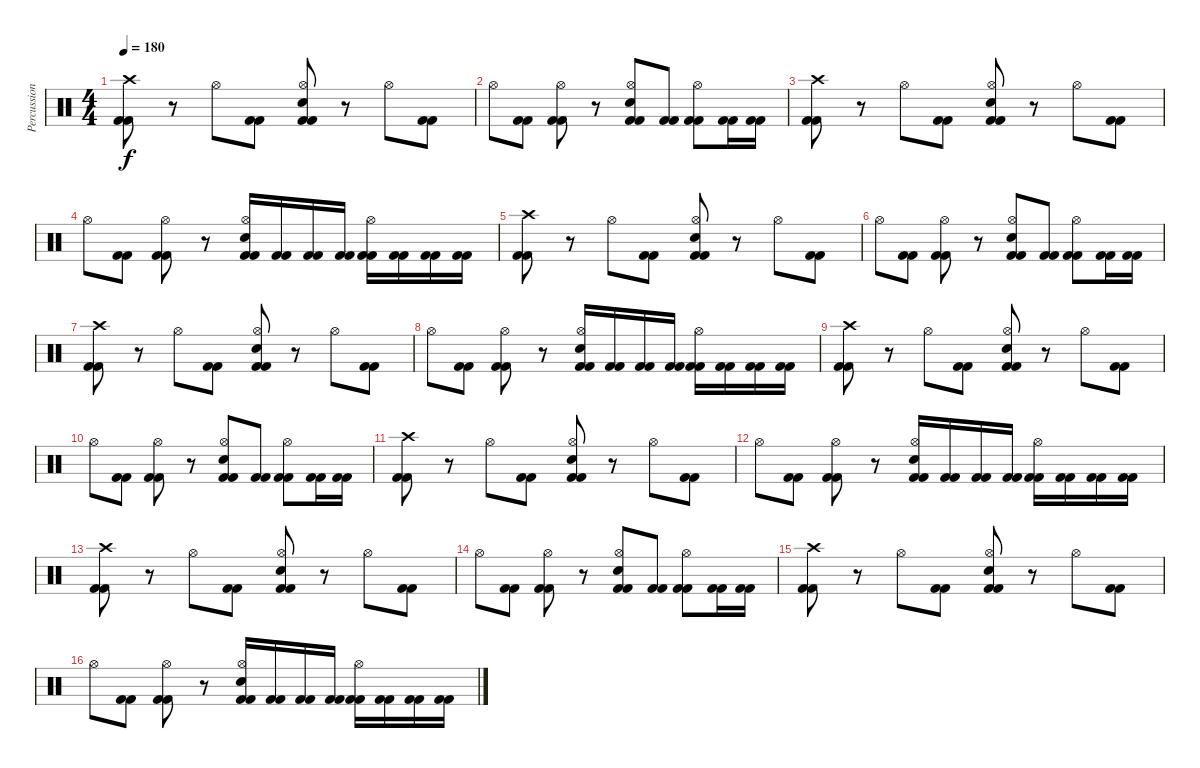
\track ("Percussion" "Percussion") {instrument percussion}
\staff {score}
\articulation defaults
\ts (4 4)
\tempo 180
\clef neutral
\ks c
("Crash high (hit)" "Kick (hit) 2" "Kick (hit) 2").8{dy f} r.8 "Hi-Hat (open)".8 ("Kick (hit) 2" "Kick (hit) 2").8 ("Hi-Hat (open)" "Electric Snare (hit)" "Kick (hit) 2" "Kick (hit) 2").8 r.8 "Hi-Hat (open)".8 ("Kick (hit) 2" "Kick (hit) 2").8 |
"Hi-Hat (open)".8 ("Kick (hit) 2" "Kick (hit) 2").8 ("Hi-Hat (open)" "Kick (hit) 2" "Kick (hit) 2").8 r.8 ("Hi-Hat (open)" "Electric Snare (hit)" "Kick (hit) 2" "Kick (hit) 2").8 ("Kick (hit) 2" "Kick (hit) 2").8 ("Hi-Hat (open)" "Kick (hit) 2" "Kick (hit) 2").8 ("Kick (hit) 2" "Kick (hit) 2").16 ("Kick (hit) 2" "Kick (hit) 2").16 |
("Crash high (hit)" "Kick (hit) 2" "Kick (hit) 2").8 r.8 "Hi-Hat (open)".8 ("Kick (hit) 2" "Kick (hit) 2").8 ("Hi-Hat (open)" "Electric Snare (hit)" "Kick (hit) 2" "Kick (hit) 2").8 r.8 "Hi-Hat (open)".8 ("Kick (hit) 2" "Kick (hit) 2").8 |
"Hi-Hat (open)".8 ("Kick (hit) 2" "Kick (hit) 2").8 ("Hi-Hat (open)" "Kick (hit) 2" "Kick (hit) 2").8 r.8 ("Hi-Hat (open)" "Electric Snare (hit)" "Kick (hit) 2" "Kick (hit) 2").16 ("Kick (hit) 2" "Kick (hit) 2").16 ("Kick (hit) 2" "Kick (hit) 2").16 ("Kick (hit) 2" "Kick (hit) 2").16 ("Hi-Hat (open)" "Kick (hit) 2" "Kick (hit) 2").16 ("Kick (hit) 2" "Kick (hit) 2").16 ("Kick (hit) 2" "Kick (hit) 2").16 ("Kick (hit) 2" "Kick (hit) 2").16 |
("Crash high (hit)" "Kick (hit) 2" "Kick (hit) 2").8 r.8 "Hi-Hat (open)".8 ("Kick (hit) 2" "Kick (hit) 2").8 ("Hi-Hat (open)" "Electric Snare (hit)" "Kick (hit) 2" "Kick (hit) 2").8 r.8 "Hi-Hat (open)".8 ("Kick (hit) 2" "Kick (hit) 2").8 |
"Hi-Hat (open)".8 ("Kick (hit) 2" "Kick (hit) 2").8 ("Hi-Hat (open)" "Kick (hit) 2" "Kick (hit) 2").8 r.8 ("Hi-Hat (open)" "Electric Snare (hit)" "Kick (hit) 2" "Kick (hit) 2").8 ("Kick (hit) 2" "Kick (hit) 2").8 ("Hi-Hat (open)" "Kick (hit) 2" "Kick (hit) 2").8 ("Kick (hit) 2" "Kick (hit) 2").16 ("Kick (hit) 2" "Kick (hit) 2").16 |
("Crash high (hit)" "Kick (hit) 2" "Kick (hit) 2").8 r.8 "Hi-Hat (open)".8 ("Kick (hit) 2" "Kick (hit) 2").8 ("Hi-Hat (open)" "Electric Snare (hit)" "Kick (hit) 2" "Kick (hit) 2").8 r.8 "Hi-Hat (open)".8 ("Kick (hit) 2" "Kick (hit) 2").8 |
"Hi-Hat (open)".8 ("Kick (hit) 2" "Kick (hit) 2").8 ("Hi-Hat (open)" "Kick (hit) 2" "Kick (hit) 2").8 r.8 ("Hi-Hat (open)" "Electric Snare (hit)" "Kick (hit) 2" "Kick (hit) 2").16 ("Kick (hit) 2" "Kick (hit) 2").16 ("Kick (hit) 2" "Kick (hit) 2").16 ("Kick (hit) 2" "Kick (hit) 2").16 ("Hi-Hat (open)" "Kick (hit) 2" "Kick (hit) 2").16 ("Kick (hit) 2" "Kick (hit) 2").16 ("Kick (hit) 2" "Kick (hit) 2").16 ("Kick (hit) 2" "Kick (hit) 2").16 |
("Crash high (hit)" "Kick (hit) 2" "Kick (hit) 2").8 r.8 "Hi-Hat (open)".8 ("Kick (hit) 2" "Kick (hit) 2").8 ("Hi-Hat (open)" "Electric Snare (hit)" "Kick (hit) 2" "Kick (hit) 2").8 r.8 "Hi-Hat (open)".8 ("Kick (hit) 2" "Kick (hit) 2").8 |
"Hi-Hat (open)".8 ("Kick (hit) 2" "Kick (hit) 2").8 ("Hi-Hat (open)" "Kick (hit) 2" "Kick (hit) 2").8 r.8 ("Hi-Hat (open)" "Electric Snare (hit)" "Kick (hit) 2" "Kick (hit) 2").8 ("Kick (hit) 2" "Kick (hit) 2").8 ("Hi-Hat (open)" "Kick (hit) 2" "Kick (hit) 2").8 ("Kick (hit) 2" "Kick (hit) 2").16 ("Kick (hit) 2" "Kick (hit) 2").16 |
("Crash high (hit)" "Kick (hit) 2" "Kick (hit) 2").8 r.8 "Hi-Hat (open)".8 ("Kick (hit) 2" "Kick (hit) 2").8 ("Hi-Hat (open)" "Electric Snare (hit)" "Kick (hit) 2" "Kick (hit) 2").8 r.8 "Hi-Hat (open)".8 ("Kick (hit) 2" "Kick (hit) 2").8 |
"Hi-Hat (open)".8 ("Kick (hit) 2" "Kick (hit) 2").8 ("Hi-Hat (open)" "Kick (hit) 2" "Kick (hit) 2").8 r.8 ("Hi-Hat (open)" "Electric Snare (hit)" "Kick (hit) 2" "Kick (hit) 2").16 ("Kick (hit) 2" "Kick (hit) 2").16 ("Kick (hit) 2" "Kick (hit) 2").16 ("Kick (hit) 2" "Kick (hit) 2").16 ("Hi-Hat (open)" "Kick (hit) 2" "Kick (hit) 2").16 ("Kick (hit) 2" "Kick (hit) 2").16 ("Kick (hit) 2" "Kick (hit) 2").16 ("Kick (hit) 2" "Kick (hit) 2").16 |
("Crash high (hit)" "Kick (hit) 2" "Kick (hit) 2").8 r.8 "Hi-Hat (open)".8 ("Kick (hit) 2" "Kick (hit) 2").8 ("Hi-Hat (open)" "Electric Snare (hit)" "Kick (hit) 2" "Kick (hit) 2").8 r.8 "Hi-Hat (open)".8 ("Kick (hit) 2" "Kick (hit) 2").8 |
"Hi-Hat (open)".8 ("Kick (hit) 2" "Kick (hit) 2").8 ("Hi-Hat (open)" "Kick (hit) 2" "Kick (hit) 2").8 r.8 ("Hi-Hat (open)" "Electric Snare (hit)" "Kick (hit) 2" "Kick (hit) 2").8 ("Kick (hit) 2" "Kick (hit) 2").8 ("Hi-Hat (open)" "Kick (hit) 2" "Kick (hit) 2").8 ("Kick (hit) 2" "Kick (hit) 2").16 ("Kick (hit) 2" "Kick (hit) 2").16 |
("Crash high (hit)" "Kick (hit) 2" "Kick (hit) 2").8 r.8 "Hi-Hat (open)".8 ("Kick (hit) 2" "Kick (hit) 2").8 ("Hi-Hat (open)" "Electric Snare (hit)" "Kick (hit) 2" "Kick (hit) 2").8 r.8 "Hi-Hat (open)".8 ("Kick (hit) 2" "Kick (hit) 2").8 |
"Hi-Hat (open)".8 ("Kick (hit) 2" "Kick (hit) 2").8 ("Hi-Hat (open)" "Kick (hit) 2" "Kick (hit) 2").8 r.8 ("Hi-Hat (open)" "Electric Snare (hit)" "Kick (hit) 2" "Kick (hit) 2").16 ("Kick (hit) 2" "Kick (hit) 2").16 ("Kick (hit) 2" "Kick (hit) 2").16 ("Kick (hit) 2" "Kick (hit) 2").16 ("Hi-Hat (open)" "Kick (hit) 2" "Kick (hit) 2").16 ("Kick (hit) 2" "Kick (hit) 2").16 ("Kick (hit) 2" "Kick (hit) 2").16 ("Kick (hit) 2" "Kick (hit) 2").16
